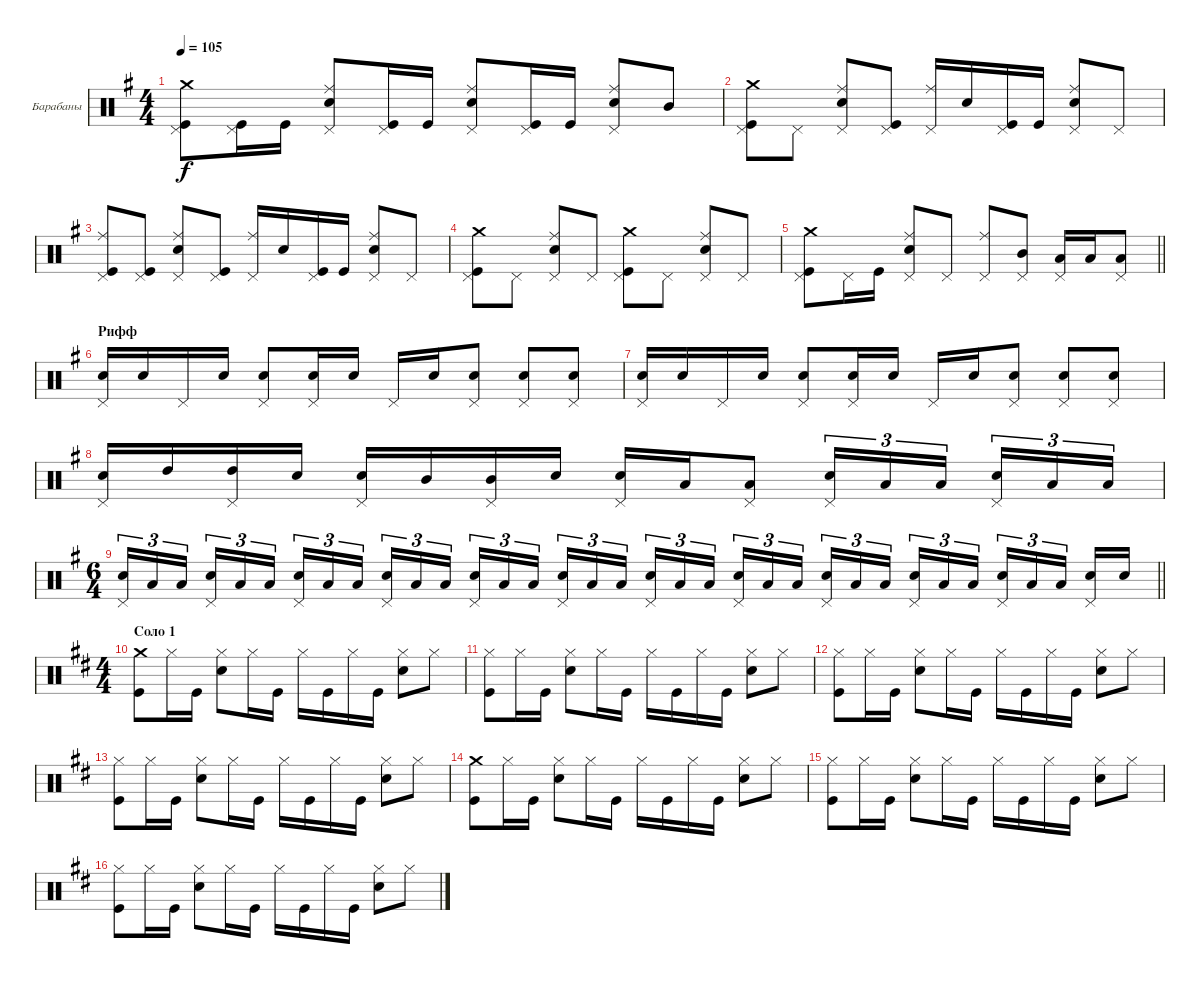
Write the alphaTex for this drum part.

\bracketExtendMode groupsimilarinstruments
\firstSystemTrackNameMode fullname
\otherSystemsTrackNameMode fullname
\firstSystemTrackNameOrientation horizontal
\otherSystemsTrackNameOrientation horizontal
\chordDiagramsInScore
\track ("Барабаны" "Drums") {instrument percussion}
\staff {score}
\articulation defaults
\ts (4 4)
\tempo 105
\clef neutral
\ks eminor
("Crash medium (hit)" "Kick (hit)" "Pedal Hi-Hat (hit)").8{dy f} ("Kick (hit)" "Pedal Hi-Hat (hit)").16 "Kick (hit)".16 ("Snare (hit) 2" "Ride (middle)" "Pedal Hi-Hat (hit)").8 ("Kick (hit)" "Pedal Hi-Hat (hit)").16 "Kick (hit)".16 ("Snare (hit) 2" "Ride (middle)" "Pedal Hi-Hat (hit)").8 ("Kick (hit)" "Pedal Hi-Hat (hit)").16 "Kick (hit)".16 ("Snare (hit) 2" "Ride (middle)" "Pedal Hi-Hat (hit)").8 "Mid Tom (hit)".8 |
("Pedal Hi-Hat (hit)" "Crash medium (hit)" "Kick (hit)").8 "Pedal Hi-Hat (hit)".8 ("Pedal Hi-Hat (hit)" "Snare (hit) 2" "Ride (middle)").8 ("Pedal Hi-Hat (hit)" "Kick (hit)").8 ("Pedal Hi-Hat (hit)" "Ride (middle)").16 "Snare (hit) 2".16 ("Pedal Hi-Hat (hit)" "Kick (hit)").16 "Kick (hit)".16 ("Pedal Hi-Hat (hit)" "Snare (hit) 2" "Ride (middle)").8 "Pedal Hi-Hat (hit)".8 |
("Pedal Hi-Hat (hit)" "Ride (middle)" "Kick (hit)").8 ("Pedal Hi-Hat (hit)" "Kick (hit)").8 ("Pedal Hi-Hat (hit)" "Snare (hit) 2" "Ride (middle)").8 ("Pedal Hi-Hat (hit)" "Kick (hit)").8 ("Pedal Hi-Hat (hit)" "Ride (middle)").16 "Snare (hit) 2".16 ("Pedal Hi-Hat (hit)" "Kick (hit)").16 "Kick (hit)".16 ("Pedal Hi-Hat (hit)" "Snare (hit) 2" "Ride (middle)").8 "Pedal Hi-Hat (hit)".8 |
("Pedal Hi-Hat (hit)" "Crash medium (hit)" "Kick (hit)").8 "Pedal Hi-Hat (hit)".8 ("Pedal Hi-Hat (hit)" "Ride (middle)" "Snare (hit) 2").8 "Pedal Hi-Hat (hit)".8 ("Pedal Hi-Hat (hit)" "Crash medium (hit)" "Kick (hit)").8 "Pedal Hi-Hat (hit)".8 ("Pedal Hi-Hat (hit)" "Ride (middle)" "Snare (hit) 2").8 "Pedal Hi-Hat (hit)".8 |
\barLineRight lightlight
("Kick (hit)" "Crash medium (hit)" "Pedal Hi-Hat (hit)").8 "Pedal Hi-Hat (hit)".16 "Kick (hit)".16 ("Snare (hit) 2" "Pedal Hi-Hat (hit)" "Ride (middle)").8 "Pedal Hi-Hat (hit)".8 ("Pedal Hi-Hat (hit)" "Ride (middle)").8 ("Mid Tom (hit)" "Pedal Hi-Hat (hit)").8 ("Low Tom (hit)" "Pedal Hi-Hat (hit)").16 "Low Tom (hit)".16 ("Low Tom (hit)" "Pedal Hi-Hat (hit)").8 |
\section ("" "Рифф")
("Snare (hit) 2" "Pedal Hi-Hat (hit)").16 "Snare (hit) 2".16 "Pedal Hi-Hat (hit)".16 "Snare (hit) 2".16 ("Snare (hit) 2" "Pedal Hi-Hat (hit)").8 ("Snare (hit) 2" "Pedal Hi-Hat (hit)").16 "Snare (hit) 2".16 "Pedal Hi-Hat (hit)".16 "Snare (hit) 2".16 ("Snare (hit) 2" "Pedal Hi-Hat (hit)").8 ("Snare (hit) 2" "Pedal Hi-Hat (hit)").8 ("Snare (hit) 2" "Pedal Hi-Hat (hit)").8 |
("Snare (hit) 2" "Pedal Hi-Hat (hit)").16 "Snare (hit) 2".16 "Pedal Hi-Hat (hit)".16 "Snare (hit) 2".16 ("Snare (hit) 2" "Pedal Hi-Hat (hit)").8 ("Snare (hit) 2" "Pedal Hi-Hat (hit)").16 "Snare (hit) 2".16 "Pedal Hi-Hat (hit)".16 "Snare (hit) 2".16 ("Snare (hit) 2" "Pedal Hi-Hat (hit)").8 ("Snare (hit) 2" "Pedal Hi-Hat (hit)").8 ("Snare (hit) 2" "Pedal Hi-Hat (hit)").8 |
("Snare (hit) 2" "Pedal Hi-Hat (hit)").16 "High Tom (hit)".16 ("Pedal Hi-Hat (hit)" "High Tom (hit)").16 "Snare (hit) 2".16 ("Snare (hit) 2" "Pedal Hi-Hat (hit)").16 "Mid Tom (hit)".16 ("Mid Tom (hit)" "Pedal Hi-Hat (hit)").16 "Snare (hit) 2".16 ("Pedal Hi-Hat (hit)" "Snare (hit) 2").16 "Low Tom (hit)".16 ("Low Tom (hit)" "Pedal Hi-Hat (hit)").8 ("Snare (hit) 2" "Pedal Hi-Hat (hit)").16{tu (3 2)} "Low Tom (hit)".16{tu (3 2)} "Low Tom (hit)".16{tu (3 2)} ("Snare (hit) 2" "Pedal Hi-Hat (hit)").16{tu (3 2)} "Low Tom (hit)".16{tu (3 2)} "Low Tom (hit)".16{tu (3 2)} |
\ts (6 4)
\beaming (8 6 6)
\barLineRight lightlight
("Snare (hit) 2" "Pedal Hi-Hat (hit)").16{tu (3 2)} "Low Tom (hit)".16{tu (3 2)} "Low Tom (hit)".16{tu (3 2)} ("Snare (hit) 2" "Pedal Hi-Hat (hit)").16{tu (3 2)} "Low Tom (hit)".16{tu (3 2)} "Low Tom (hit)".16{tu (3 2)} ("Snare (hit) 2" "Pedal Hi-Hat (hit)").16{tu (3 2)} "Low Tom (hit)".16{tu (3 2)} "Low Tom (hit)".16{tu (3 2)} ("Snare (hit) 2" "Pedal Hi-Hat (hit)").16{tu (3 2)} "Low Tom (hit)".16{tu (3 2)} "Low Tom (hit)".16{tu (3 2)} ("Snare (hit) 2" "Pedal Hi-Hat (hit)").16{tu (3 2)} "Low Tom (hit)".16{tu (3 2)} "Low Tom (hit)".16{tu (3 2)} ("Snare (hit) 2" "Pedal Hi-Hat (hit)").16{tu (3 2)} "Low Tom (hit)".16{tu (3 2)} "Low Tom (hit)".16{tu (3 2)} ("Snare (hit) 2" "Pedal Hi-Hat (hit)").16{tu (3 2)} "Low Tom (hit)".16{tu (3 2)} "Low Tom (hit)".16{tu (3 2)} ("Snare (hit) 2" "Pedal Hi-Hat (hit)").16{tu (3 2)} "Low Tom (hit)".16{tu (3 2)} "Low Tom (hit)".16{tu (3 2)} ("Snare (hit) 2" "Pedal Hi-Hat (hit)").16{tu (3 2)} "Low Tom (hit)".16{tu (3 2)} "Low Tom (hit)".16{tu (3 2)} ("Snare (hit) 2" "Pedal Hi-Hat (hit)").16{tu (3 2)} "Low Tom (hit)".16{tu (3 2)} "Low Tom (hit)".16{tu (3 2)} ("Snare (hit) 2" "Pedal Hi-Hat (hit)").16{tu (3 2)} "Low Tom (hit)".16{tu (3 2)} "Low Tom (hit)".16{tu (3 2)} ("Snare (hit) 2" "Pedal Hi-Hat (hit)").16 "Snare (hit) 2".16 |
\ts (4 4)
\beaming (8 2 2 2 2)
\section ("" "Соло 1")
\ks bminor
("Kick (hit)" "Crash medium (hit)").8 "Hi-Hat (closed)".16 "Kick (hit)".16 ("Hi-Hat (closed)" "Snare (hit) 2").8 "Hi-Hat (closed)".16 "Kick (hit)".16 "Hi-Hat (closed)".16 "Kick (hit)".16 "Hi-Hat (closed)".16 "Kick (hit)".16 ("Snare (hit) 2" "Hi-Hat (closed)").8 "Hi-Hat (closed)".8 |
("Kick (hit)" "Hi-Hat (closed)").8 "Hi-Hat (closed)".16 "Kick (hit)".16 ("Hi-Hat (closed)" "Snare (hit) 2").8 "Hi-Hat (closed)".16 "Kick (hit)".16 "Hi-Hat (closed)".16 "Kick (hit)".16 "Hi-Hat (closed)".16 "Kick (hit)".16 ("Snare (hit) 2" "Hi-Hat (closed)").8 "Hi-Hat (closed)".8 |
("Kick (hit)" "Hi-Hat (closed)").8 "Hi-Hat (closed)".16 "Kick (hit)".16 ("Hi-Hat (closed)" "Snare (hit) 2").8 "Hi-Hat (closed)".16 "Kick (hit)".16 "Hi-Hat (closed)".16 "Kick (hit)".16 "Hi-Hat (closed)".16 "Kick (hit)".16 ("Snare (hit) 2" "Hi-Hat (closed)").8 "Hi-Hat (closed)".8 |
("Kick (hit)" "Hi-Hat (closed)").8 "Hi-Hat (closed)".16 "Kick (hit)".16 ("Hi-Hat (closed)" "Snare (hit) 2").8 "Hi-Hat (closed)".16 "Kick (hit)".16 "Hi-Hat (closed)".16 "Kick (hit)".16 "Hi-Hat (closed)".16 "Kick (hit)".16 ("Snare (hit) 2" "Hi-Hat (closed)").8 "Hi-Hat (closed)".8 |
("Kick (hit)" "Crash medium (hit)").8 "Hi-Hat (closed)".16 "Kick (hit)".16 ("Hi-Hat (closed)" "Snare (hit) 2").8 "Hi-Hat (closed)".16 "Kick (hit)".16 "Hi-Hat (closed)".16 "Kick (hit)".16 "Hi-Hat (closed)".16 "Kick (hit)".16 ("Snare (hit) 2" "Hi-Hat (closed)").8 "Hi-Hat (closed)".8 |
("Kick (hit)" "Hi-Hat (closed)").8 "Hi-Hat (closed)".16 "Kick (hit)".16 ("Hi-Hat (closed)" "Snare (hit) 2").8 "Hi-Hat (closed)".16 "Kick (hit)".16 "Hi-Hat (closed)".16 "Kick (hit)".16 "Hi-Hat (closed)".16 "Kick (hit)".16 ("Snare (hit) 2" "Hi-Hat (closed)").8 "Hi-Hat (closed)".8 |
("Kick (hit)" "Hi-Hat (closed)").8 "Hi-Hat (closed)".16 "Kick (hit)".16 ("Hi-Hat (closed)" "Snare (hit) 2").8 "Hi-Hat (closed)".16 "Kick (hit)".16 "Hi-Hat (closed)".16 "Kick (hit)".16 "Hi-Hat (closed)".16 "Kick (hit)".16 ("Snare (hit) 2" "Hi-Hat (closed)").8 "Hi-Hat (closed)".8
